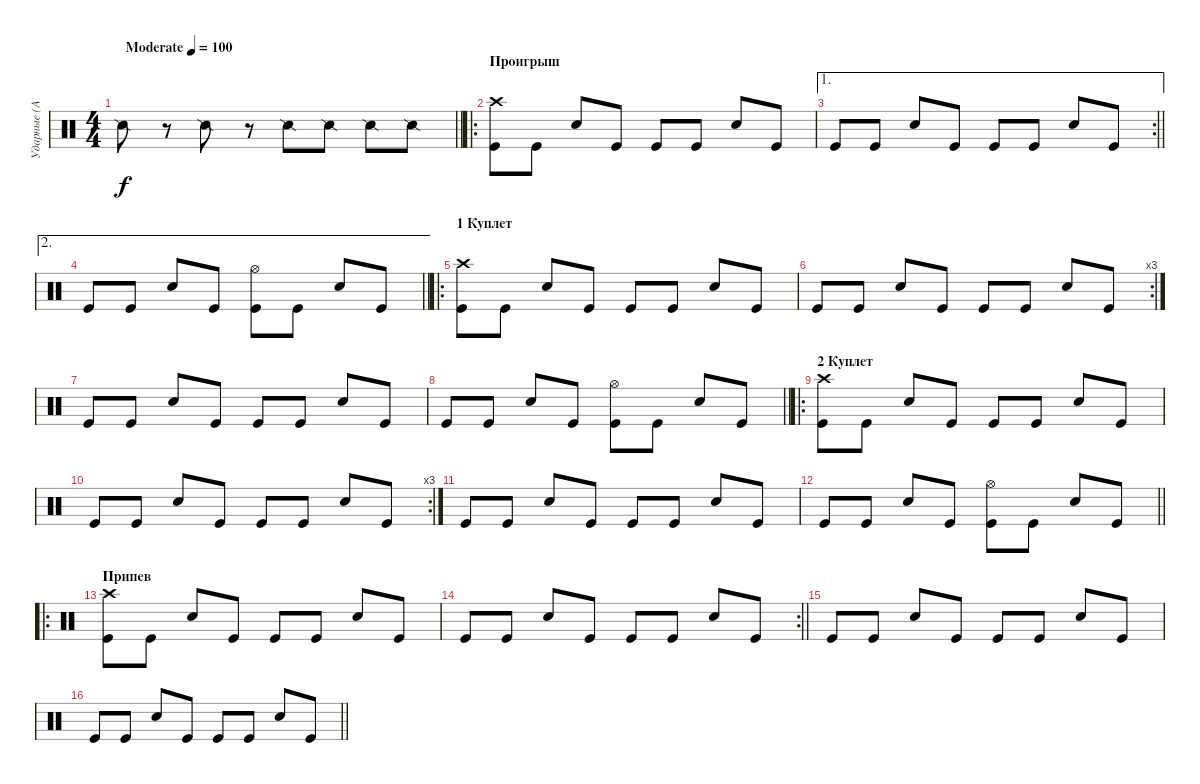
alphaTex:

\track ("Ударные (Александр Андрюшкин)" "Ударные (А") {instrument percussion}
\staff {score}
\articulation defaults
\ts (4 4)
\tempo (100 "Moderate")
\clef neutral
\barLineRight lightlight
\ks c "Snare (side stick) 2".8{dy f}
r.8 "Snare (side stick) 2".8 r.8 "Snare (side stick) 2".8 "Snare (side stick) 2".8 "Snare (side stick) 2".8 "Snare (side stick) 2".8 |
\ro
\section ("" "Проигрыш")
("Crash high (hit)" "Kick (hit)").8 "Kick (hit)".8 "Snare (hit) 2".8 "Kick (hit)".8 "Kick (hit)".8 "Kick (hit)".8 "Snare (hit) 2".8 "Kick (hit)".8 |
\ae 1
\rc 2
\barLineRight lightlight "Kick (hit)".8 "Kick (hit)".8 "Snare (hit) 2".8 "Kick (hit)".8 "Kick (hit)".8 "Kick (hit)".8 "Snare (hit) 2".8 "Kick (hit)".8
|
\ae 2
\barLineRight lightlight "Kick (hit)".8 "Kick (hit)".8 "Snare (hit) 2".8 "Kick (hit)".8
("Hi-Hat (open)" "Kick (hit)").8 "Kick (hit)".8 "Snare (hit) 2".8 "Kick (hit)".8 |
\ro
\section ("" "1 Куплет")
("Crash high (hit)" "Kick (hit)").8 "Kick (hit)".8 "Snare (hit) 2".8 "Kick (hit)".8 "Kick (hit)".8 "Kick (hit)".8 "Snare (hit) 2".8 "Kick (hit)".8 |
\rc 3 "Kick (hit)".8 "Kick (hit)".8 "Snare (hit) 2".8 "Kick (hit)".8 "Kick (hit)".8 "Kick (hit)".8 "Snare (hit) 2".8 "Kick (hit)".8
|
"Kick (hit)".8 "Kick (hit)".8 "Snare (hit) 2".8 "Kick (hit)".8 "Kick (hit)".8 "Kick (hit)".8 "Snare (hit) 2".8 "Kick (hit)".8 |
\barLineRight lightlight "Kick (hit)".8 "Kick (hit)".8 "Snare (hit) 2".8 "Kick (hit)".8
("Hi-Hat (open)" "Kick (hit)").8 "Kick (hit)".8 "Snare (hit) 2".8 "Kick (hit)".8 |
\ro
\section ("" "2 Куплет")
("Crash high (hit)" "Kick (hit)").8 "Kick (hit)".8 "Snare (hit) 2".8 "Kick (hit)".8 "Kick (hit)".8 "Kick (hit)".8 "Snare (hit) 2".8 "Kick (hit)".8 |
\rc 3 "Kick (hit)".8 "Kick (hit)".8 "Snare (hit) 2".8 "Kick (hit)".8 "Kick (hit)".8 "Kick (hit)".8 "Snare (hit) 2".8 "Kick (hit)".8
|
"Kick (hit)".8 "Kick (hit)".8 "Snare (hit) 2".8 "Kick (hit)".8 "Kick (hit)".8 "Kick (hit)".8 "Snare (hit) 2".8 "Kick (hit)".8 |
\barLineRight lightlight "Kick (hit)".8 "Kick (hit)".8 "Snare (hit) 2".8 "Kick (hit)".8
("Hi-Hat (open)" "Kick (hit)").8 "Kick (hit)".8 "Snare (hit) 2".8 "Kick (hit)".8 |
\ro
\section ("" "Припев")
("Crash high (hit)" "Kick (hit)").8 "Kick (hit)".8 "Snare (hit) 2".8 "Kick (hit)".8 "Kick (hit)".8 "Kick (hit)".8 "Snare (hit) 2".8 "Kick (hit)".8 |
\rc 2
\barLineRight lightlight "Kick (hit)".8 "Kick (hit)".8 "Snare (hit) 2".8 "Kick (hit)".8 "Kick (hit)".8 "Kick (hit)".8 "Snare (hit) 2".8 "Kick (hit)".8
|
"Kick (hit)".8 "Kick (hit)".8 "Snare (hit) 2".8 "Kick (hit)".8 "Kick (hit)".8 "Kick (hit)".8 "Snare (hit) 2".8 "Kick (hit)".8 |
\barLineRight lightlight "Kick (hit)".8 "Kick (hit)".8 "Snare (hit) 2".8 "Kick (hit)".8 "Kick (hit)".8 "Kick (hit)".8 "Snare (hit) 2".8 "Kick (hit)".8
